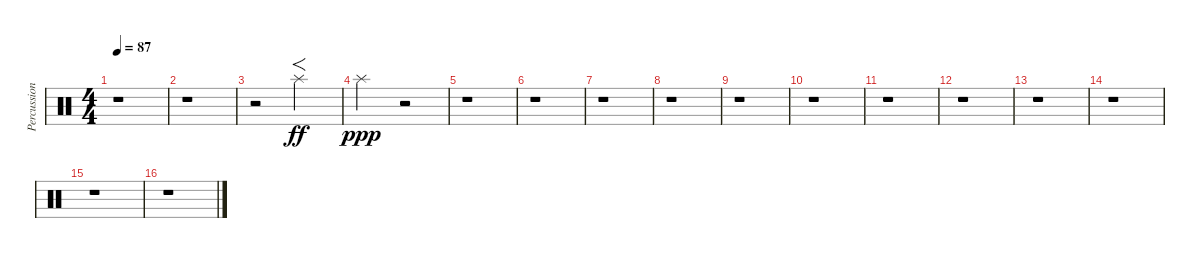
\track ("Percussion" "Percussion") {instrument percussion}
\staff {score}
\articulation defaults
\ts (4 4)
\tempo 87
\clef neutral
\ks c
r.1{dy ff} |
r.1 |
r.2 "Splash (hit)".2{f} |
"Splash (hit)".2{dy ppp} r.2 |
r.1 |
r.1 |
r.1 |
r.1 |
r.1 |
r.1 |
r.1 |
r.1 |
r.1 |
r.1 |
r.1 |
r.1
